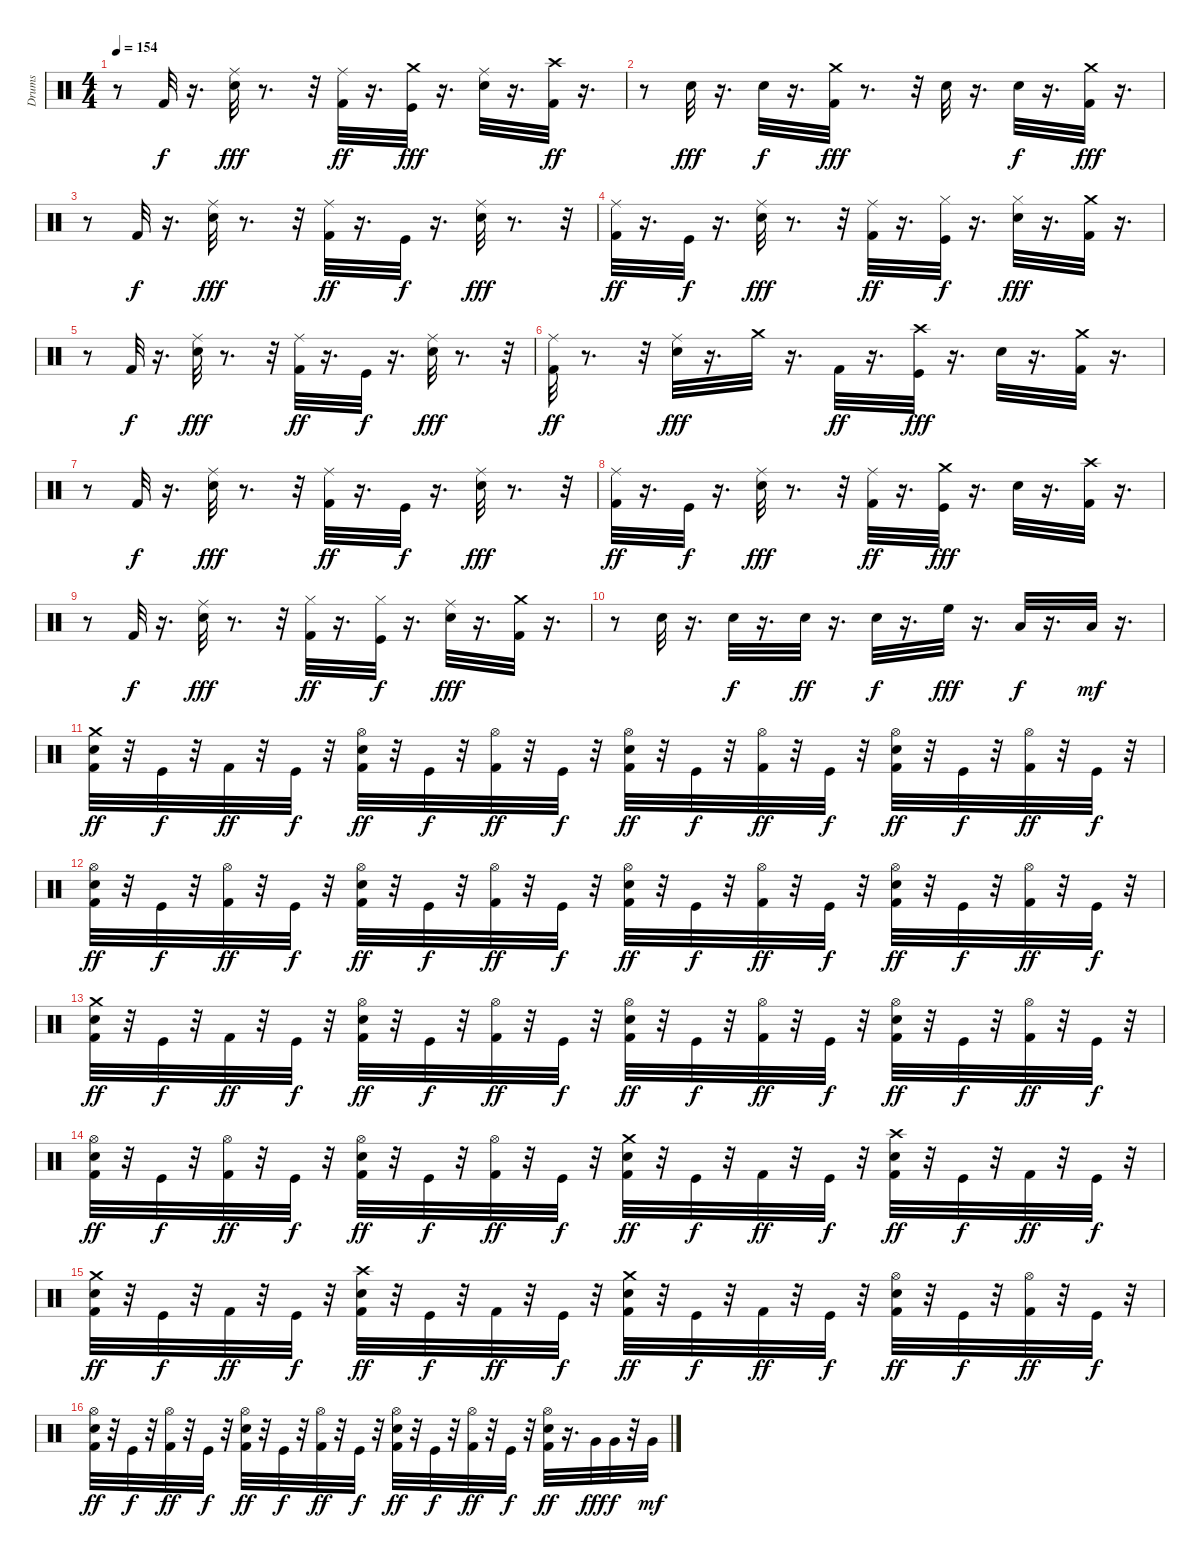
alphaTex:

\track ("Drums" "Drums") {instrument percussion}
\staff {score}
\articulation defaults
\ts (4 4)
\tempo 154
\clef neutral
\ks c
r.8{dy fff} "Kick (hit) 2".32{dy f} r.16{d} ("Snare (hit) 2" "Ride (middle)").32{dy fff} r.8{d} r.32 ("Kick (hit) 2" "Ride (middle)").32{dy ff} r.16{d} ("Kick (hit)" "Crash medium (hit)").32{dy fff} r.16{d} ("Snare (hit) 2" "Ride (middle)").32 r.16{d} ("Kick (hit) 2" "Crash high (hit)").32{dy ff} r.16{d} |
r.8 "Snare (hit) 2".32{dy fff} r.16{d} "Snare (hit) 2".32{dy f} r.16{d} ("Kick (hit) 2" "Crash medium (hit)").32{dy fff} r.8{d} r.32 "Snare (hit) 2".32 r.16{d} "Snare (hit) 2".32{dy f} r.16{d} ("Kick (hit) 2" "Crash medium (hit)").32{dy fff} r.16{d} |
r.8 "Kick (hit) 2".32{dy f} r.16{d} ("Snare (hit) 2" "Ride (middle)").32{dy fff} r.8{d} r.32 ("Kick (hit) 2" "Ride (middle)").32{dy ff} r.16{d} "Kick (hit)".32{dy f} r.16{d} ("Snare (hit) 2" "Ride (middle)").32{dy fff} r.8{d} r.32 |
("Kick (hit) 2" "Ride (middle)").32{dy ff} r.16{d} "Kick (hit)".32{dy f} r.16{d} ("Snare (hit) 2" "Ride (middle)").32{dy fff} r.8{d} r.32 ("Kick (hit) 2" "Ride (middle)").32{dy ff} r.16{d} ("Kick (hit)" "Hi-Hat (closed)").32{dy f} r.16{d} ("Snare (hit) 2" "Hi-Hat (closed)").32{dy fff} r.16{d} ("Kick (hit) 2" "Crash medium (hit)").32 r.16{d} |
r.8 "Kick (hit) 2".32{dy f} r.16{d} ("Snare (hit) 2" "Ride (middle)").32{dy fff} r.8{d} r.32 ("Kick (hit) 2" "Ride (middle)").32{dy ff} r.16{d} "Kick (hit)".32{dy f} r.16{d} ("Snare (hit) 2" "Ride (middle)").32{dy fff} r.8{d} r.32 |
("Kick (hit) 2" "Ride (middle)").32{dy ff} r.8{d} r.32 ("Snare (hit) 2" "Ride (middle)").32{dy fff} r.16{d} "Crash medium (hit)".32 r.16{d} "Kick (hit) 2".32{dy ff} r.16{d} ("Kick (hit)" "Crash high (hit)").32{dy fff} r.16{d} "Snare (hit) 2".32 r.16{d} ("Kick (hit) 2" "Crash medium (hit)").32 r.16{d} |
r.8 "Kick (hit) 2".32{dy f} r.16{d} ("Snare (hit) 2" "Ride (middle)").32{dy fff} r.8{d} r.32 ("Kick (hit) 2" "Ride (middle)").32{dy ff} r.16{d} "Kick (hit)".32{dy f} r.16{d} ("Snare (hit) 2" "Ride (middle)").32{dy fff} r.8{d} r.32 |
("Kick (hit) 2" "Ride (middle)").32{dy ff} r.16{d} "Kick (hit)".32{dy f} r.16{d} ("Snare (hit) 2" "Ride (middle)").32{dy fff} r.8{d} r.32 ("Kick (hit) 2" "Ride (middle)").32{dy ff} r.16{d} ("Kick (hit)" "Crash medium (hit)").32{dy fff} r.16{d} "Snare (hit) 2".32 r.16{d} ("Kick (hit) 2" "Crash high (hit)").32 r.16{d} |
r.8 "Kick (hit) 2".32{dy f} r.16{d} ("Snare (hit) 2" "Ride (middle)").32{dy fff} r.8{d} r.32 ("Kick (hit) 2" "Hi-Hat (closed)").32{dy ff} r.16{d} ("Kick (hit)" "Hi-Hat (closed)").32{dy f} r.16{d} ("Snare (hit) 2" "Ride (middle)").32{dy fff} r.16{d} ("Kick (hit) 2" "Crash medium (hit)").32 r.16{d} |
r.8 "Snare (hit) 2".32 r.16{d} "Snare (hit) 2".32{dy f} r.16{d} "Snare (hit) 2".32{dy ff} r.16{d} "Snare (hit) 2".32{dy f} r.16{d} "High Floor Tom (hit)".32{dy fff} r.16{d} "Low Tom (hit)".32{dy f} r.16{d} "Low Floor Tom (hit)".32{dy mf} r.16{d} |
("Crash medium (hit)" "Snare (hit) 2" "Kick (hit) 2").32{dy ff} r.32 "Kick (hit)".32{dy f} r.32 "Kick (hit) 2".32{dy ff} r.32 "Kick (hit)".32{dy f} r.32 ("Hi-Hat (open)" "Snare (hit) 2" "Kick (hit) 2").32{dy ff} r.32 "Kick (hit)".32{dy f} r.32 ("Hi-Hat (open)" "Kick (hit) 2").32{dy ff} r.32 "Kick (hit)".32{dy f} r.32 ("Hi-Hat (open)" "Snare (hit) 2" "Kick (hit) 2").32{dy ff} r.32 "Kick (hit)".32{dy f} r.32 ("Hi-Hat (open)" "Kick (hit) 2").32{dy ff} r.32 "Kick (hit)".32{dy f} r.32 ("Hi-Hat (open)" "Snare (hit) 2" "Kick (hit) 2").32{dy ff} r.32 "Kick (hit)".32{dy f} r.32 ("Hi-Hat (open)" "Kick (hit) 2").32{dy ff} r.32 "Kick (hit)".32{dy f} r.32 |
("Hi-Hat (open)" "Snare (hit) 2" "Kick (hit) 2").32{dy ff} r.32 "Kick (hit)".32{dy f} r.32 ("Hi-Hat (open)" "Kick (hit) 2").32{dy ff} r.32 "Kick (hit)".32{dy f} r.32 ("Hi-Hat (open)" "Snare (hit) 2" "Kick (hit) 2").32{dy ff} r.32 "Kick (hit)".32{dy f} r.32 ("Hi-Hat (open)" "Kick (hit) 2").32{dy ff} r.32 "Kick (hit)".32{dy f} r.32 ("Hi-Hat (open)" "Snare (hit) 2" "Kick (hit) 2").32{dy ff} r.32 "Kick (hit)".32{dy f} r.32 ("Hi-Hat (open)" "Kick (hit) 2").32{dy ff} r.32 "Kick (hit)".32{dy f} r.32 ("Hi-Hat (open)" "Snare (hit) 2" "Kick (hit) 2").32{dy ff} r.32 "Kick (hit)".32{dy f} r.32 ("Hi-Hat (open)" "Kick (hit) 2").32{dy ff} r.32 "Kick (hit)".32{dy f} r.32 |
("Crash medium (hit)" "Snare (hit) 2" "Kick (hit) 2").32{dy ff} r.32 "Kick (hit)".32{dy f} r.32 "Kick (hit) 2".32{dy ff} r.32 "Kick (hit)".32{dy f} r.32 ("Hi-Hat (open)" "Snare (hit) 2" "Kick (hit) 2").32{dy ff} r.32 "Kick (hit)".32{dy f} r.32 ("Hi-Hat (open)" "Kick (hit) 2").32{dy ff} r.32 "Kick (hit)".32{dy f} r.32 ("Hi-Hat (open)" "Snare (hit) 2" "Kick (hit) 2").32{dy ff} r.32 "Kick (hit)".32{dy f} r.32 ("Hi-Hat (open)" "Kick (hit) 2").32{dy ff} r.32 "Kick (hit)".32{dy f} r.32 ("Hi-Hat (open)" "Snare (hit) 2" "Kick (hit) 2").32{dy ff} r.32 "Kick (hit)".32{dy f} r.32 ("Hi-Hat (open)" "Kick (hit) 2").32{dy ff} r.32 "Kick (hit)".32{dy f} r.32 |
("Hi-Hat (open)" "Snare (hit) 2" "Kick (hit) 2").32{dy ff} r.32 "Kick (hit)".32{dy f} r.32 ("Hi-Hat (open)" "Kick (hit) 2").32{dy ff} r.32 "Kick (hit)".32{dy f} r.32 ("Hi-Hat (open)" "Snare (hit) 2" "Kick (hit) 2").32{dy ff} r.32 "Kick (hit)".32{dy f} r.32 ("Hi-Hat (open)" "Kick (hit) 2").32{dy ff} r.32 "Kick (hit)".32{dy f} r.32 ("Crash medium (hit)" "Snare (hit) 2" "Kick (hit) 2").32{dy ff} r.32 "Kick (hit)".32{dy f} r.32 "Kick (hit) 2".32{dy ff} r.32 "Kick (hit)".32{dy f} r.32 ("Crash high (hit)" "Snare (hit) 2" "Kick (hit) 2").32{dy ff} r.32 "Kick (hit)".32{dy f} r.32 "Kick (hit) 2".32{dy ff} r.32 "Kick (hit)".32{dy f} r.32 |
("Crash medium (hit)" "Snare (hit) 2" "Kick (hit) 2").32{dy ff} r.32 "Kick (hit)".32{dy f} r.32 "Kick (hit) 2".32{dy ff} r.32 "Kick (hit)".32{dy f} r.32 ("Crash high (hit)" "Snare (hit) 2" "Kick (hit) 2").32{dy ff} r.32 "Kick (hit)".32{dy f} r.32 "Kick (hit) 2".32{dy ff} r.32 "Kick (hit)".32{dy f} r.32 ("Crash medium (hit)" "Snare (hit) 2" "Kick (hit) 2").32{dy ff} r.32 "Kick (hit)".32{dy f} r.32 "Kick (hit) 2".32{dy ff} r.32 "Kick (hit)".32{dy f} r.32 ("Hi-Hat (open)" "Snare (hit) 2" "Kick (hit) 2").32{dy ff} r.32 "Kick (hit)".32{dy f} r.32 ("Hi-Hat (open)" "Kick (hit) 2").32{dy ff} r.32 "Kick (hit)".32{dy f} r.32 |
("Hi-Hat (open)" "Snare (hit) 2" "Kick (hit) 2").32{dy ff} r.32 "Kick (hit)".32{dy f} r.32 ("Hi-Hat (open)" "Kick (hit) 2").32{dy ff} r.32 "Kick (hit)".32{dy f} r.32 ("Hi-Hat (open)" "Snare (hit) 2" "Kick (hit) 2").32{dy ff} r.32 "Kick (hit)".32{dy f} r.32 ("Hi-Hat (open)" "Kick (hit) 2").32{dy ff} r.32 "Kick (hit)".32{dy f} r.32 ("Hi-Hat (open)" "Snare (hit) 2" "Kick (hit) 2").32{dy ff} r.32 "Kick (hit)".32{dy f} r.32 ("Hi-Hat (open)" "Kick (hit) 2").32{dy ff} r.32 "Kick (hit)".32{dy f} r.32 ("Hi-Hat (open)" "Snare (hit) 2" "Kick (hit) 2").32{dy ff} r.16{d} "Very Low Tom (hit)".32{dy fff} "Very Low Tom (hit)".32{dy f} r.32 "Very Low Tom (hit)".32{dy mf}
